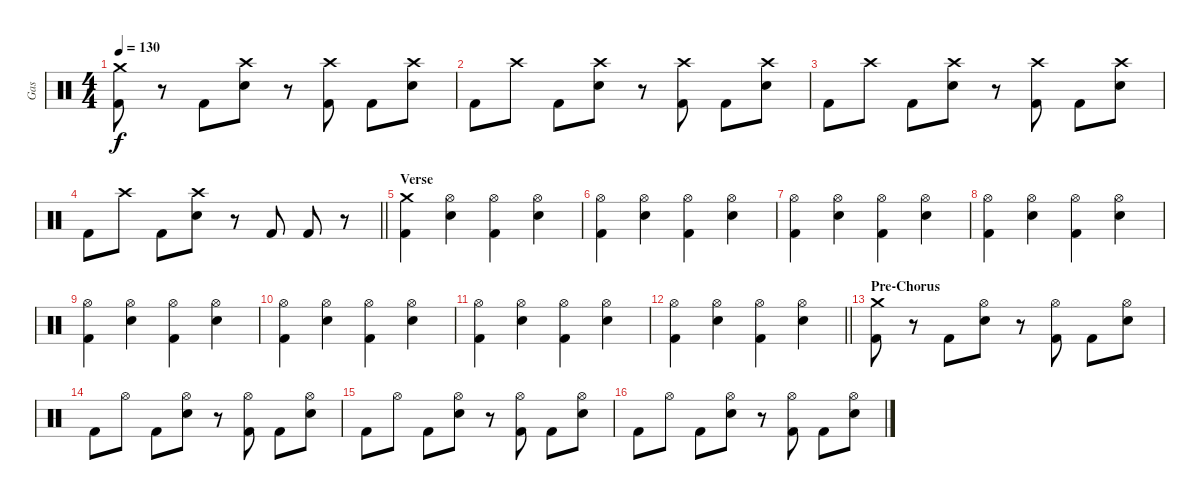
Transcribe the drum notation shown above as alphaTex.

\track ("Gas" "Gas") {instrument percussion}
\staff {score}
\articulation defaults
\ts (4 4)
\tempo 130
\clef neutral
\ks c
("Crash medium (hit)" "Kick (hit) 2").8{dy f} r.8 "Kick (hit) 2".8 ("Crash high (hit)" "Electric Snare (hit)").8 r.8 ("Crash high (hit)" "Kick (hit) 2").8 "Kick (hit) 2".8 ("Crash high (hit)" "Electric Snare (hit)").8 |
"Kick (hit) 2".8 "Crash high (hit)".8 "Kick (hit) 2".8 ("Electric Snare (hit)" "Crash high (hit)").8 r.8 ("Kick (hit) 2" "Crash high (hit)").8 "Kick (hit) 2".8 ("Electric Snare (hit)" "Crash high (hit)").8 |
"Kick (hit) 2".8 "Crash high (hit)".8 "Kick (hit) 2".8 ("Crash high (hit)" "Electric Snare (hit)").8 r.8 ("Crash high (hit)" "Kick (hit) 2").8 "Kick (hit) 2".8 ("Crash high (hit)" "Electric Snare (hit)").8 |
\barLineRight lightlight "Kick (hit) 2".8 "Crash high (hit)".8 "Kick (hit) 2".8
("Electric Snare (hit)" "Crash high (hit)").8 r.8 "Kick (hit) 2".8 "Kick (hit) 2".8 r.8 |
\section ("" "Verse")
("Kick (hit) 2" "Crash medium (hit)").4 ("Electric Snare (hit)" "Hi-Hat (open)").4 ("Kick (hit) 2" "Hi-Hat (open)").4 ("Electric Snare (hit)" "Hi-Hat (open)").4 |
("Kick (hit) 2" "Hi-Hat (open)").4 ("Electric Snare (hit)" "Hi-Hat (open)").4 ("Kick (hit) 2" "Hi-Hat (open)").4 ("Electric Snare (hit)" "Hi-Hat (open)").4 |
("Kick (hit) 2" "Hi-Hat (open)").4 ("Electric Snare (hit)" "Hi-Hat (open)").4 ("Kick (hit) 2" "Hi-Hat (open)").4 ("Electric Snare (hit)" "Hi-Hat (open)").4 |
("Kick (hit) 2" "Hi-Hat (open)").4 ("Electric Snare (hit)" "Hi-Hat (open)").4 ("Kick (hit) 2" "Hi-Hat (open)").4 ("Electric Snare (hit)" "Hi-Hat (open)").4 |
("Kick (hit) 2" "Hi-Hat (open)").4 ("Electric Snare (hit)" "Hi-Hat (open)").4 ("Kick (hit) 2" "Hi-Hat (open)").4 ("Electric Snare (hit)" "Hi-Hat (open)").4 |
("Kick (hit) 2" "Hi-Hat (open)").4 ("Electric Snare (hit)" "Hi-Hat (open)").4 ("Kick (hit) 2" "Hi-Hat (open)").4 ("Electric Snare (hit)" "Hi-Hat (open)").4 |
("Kick (hit) 2" "Hi-Hat (open)").4 ("Electric Snare (hit)" "Hi-Hat (open)").4 ("Kick (hit) 2" "Hi-Hat (open)").4 ("Electric Snare (hit)" "Hi-Hat (open)").4 |
\barLineRight lightlight
("Kick (hit) 2" "Hi-Hat (open)").4 ("Electric Snare (hit)" "Hi-Hat (open)").4 ("Kick (hit) 2" "Hi-Hat (open)").4 ("Electric Snare (hit)" "Hi-Hat (open)").4 |
\section ("" "Pre-Chorus")
("Crash medium (hit)" "Kick (hit) 2").8 r.8 "Kick (hit) 2".8 ("Hi-Hat (open)" "Electric Snare (hit)").8 r.8 ("Hi-Hat (open)" "Kick (hit) 2").8 "Kick (hit) 2".8 ("Hi-Hat (open)" "Electric Snare (hit)").8 |
"Kick (hit) 2".8 "Hi-Hat (open)".8 "Kick (hit) 2".8 ("Electric Snare (hit)" "Hi-Hat (open)").8 r.8 ("Kick (hit) 2" "Hi-Hat (open)").8 "Kick (hit) 2".8 ("Electric Snare (hit)" "Hi-Hat (open)").8 |
"Kick (hit) 2".8 "Hi-Hat (open)".8 "Kick (hit) 2".8 ("Hi-Hat (open)" "Electric Snare (hit)").8 r.8 ("Hi-Hat (open)" "Kick (hit) 2").8 "Kick (hit) 2".8 ("Hi-Hat (open)" "Electric Snare (hit)").8 |
"Kick (hit) 2".8 "Hi-Hat (open)".8 "Kick (hit) 2".8 ("Electric Snare (hit)" "Hi-Hat (open)").8 r.8 ("Kick (hit) 2" "Hi-Hat (open)").8 "Kick (hit) 2".8 ("Electric Snare (hit)" "Hi-Hat (open)").8
